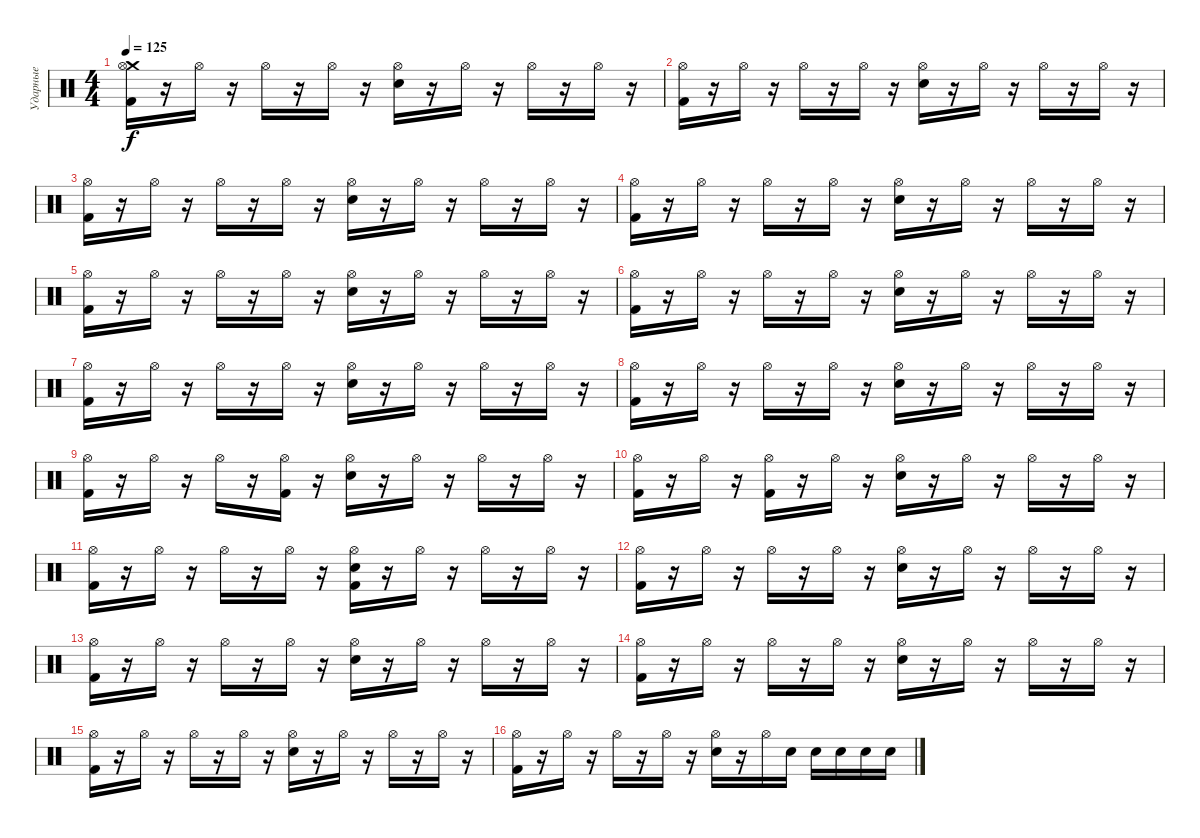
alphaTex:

\track ("Ударные" "Ударные") {instrument percussion}
\staff {score}
\articulation defaults
\ts (4 4)
\tempo 125
\clef neutral
\ks c
("Crash medium (hit)" "Hi-Hat (open)" "Kick (hit) 2").16{dy f} r.16 "Hi-Hat (open)".16 r.16 "Hi-Hat (open)".16 r.16 "Hi-Hat (open)".16 r.16 ("Hi-Hat (open)" "Snare (hit) 2").16 r.16 "Hi-Hat (open)".16 r.16 "Hi-Hat (open)".16 r.16 "Hi-Hat (open)".16 r.16 |
("Hi-Hat (open)" "Kick (hit) 2").16 r.16 "Hi-Hat (open)".16 r.16 "Hi-Hat (open)".16 r.16 "Hi-Hat (open)".16 r.16 ("Hi-Hat (open)" "Snare (hit) 2").16 r.16 "Hi-Hat (open)".16 r.16 "Hi-Hat (open)".16 r.16 "Hi-Hat (open)".16 r.16 |
("Hi-Hat (open)" "Kick (hit) 2").16 r.16 "Hi-Hat (open)".16 r.16 "Hi-Hat (open)".16 r.16 "Hi-Hat (open)".16 r.16 ("Hi-Hat (open)" "Snare (hit) 2").16 r.16 "Hi-Hat (open)".16 r.16 "Hi-Hat (open)".16 r.16 "Hi-Hat (open)".16 r.16 |
("Hi-Hat (open)" "Kick (hit) 2").16 r.16 "Hi-Hat (open)".16 r.16 "Hi-Hat (open)".16 r.16 "Hi-Hat (open)".16 r.16 ("Hi-Hat (open)" "Snare (hit) 2").16 r.16 "Hi-Hat (open)".16 r.16 "Hi-Hat (open)".16 r.16 "Hi-Hat (open)".16 r.16 |
("Hi-Hat (open)" "Kick (hit) 2").16 r.16 "Hi-Hat (open)".16 r.16 "Hi-Hat (open)".16 r.16 "Hi-Hat (open)".16 r.16 ("Hi-Hat (open)" "Snare (hit) 2").16 r.16 "Hi-Hat (open)".16 r.16 "Hi-Hat (open)".16 r.16 "Hi-Hat (open)".16 r.16 |
("Hi-Hat (open)" "Kick (hit) 2").16 r.16 "Hi-Hat (open)".16 r.16 "Hi-Hat (open)".16 r.16 "Hi-Hat (open)".16 r.16 ("Hi-Hat (open)" "Snare (hit) 2").16 r.16 "Hi-Hat (open)".16 r.16 "Hi-Hat (open)".16 r.16 "Hi-Hat (open)".16 r.16 |
("Hi-Hat (open)" "Kick (hit) 2").16 r.16 "Hi-Hat (open)".16 r.16 "Hi-Hat (open)".16 r.16 "Hi-Hat (open)".16 r.16 ("Hi-Hat (open)" "Snare (hit) 2").16 r.16 "Hi-Hat (open)".16 r.16 "Hi-Hat (open)".16 r.16 "Hi-Hat (open)".16 r.16 |
("Hi-Hat (open)" "Kick (hit) 2").16 r.16 "Hi-Hat (open)".16 r.16 "Hi-Hat (open)".16 r.16 "Hi-Hat (open)".16 r.16 ("Hi-Hat (open)" "Snare (hit) 2").16 r.16 "Hi-Hat (open)".16 r.16 "Hi-Hat (open)".16 r.16 "Hi-Hat (open)".16 r.16 |
("Hi-Hat (open)" "Kick (hit) 2").16 r.16 "Hi-Hat (open)".16 r.16 "Hi-Hat (open)".16 r.16 ("Hi-Hat (open)" "Kick (hit) 2").16 r.16 ("Hi-Hat (open)" "Snare (hit) 2").16 r.16 "Hi-Hat (open)".16 r.16 "Hi-Hat (open)".16 r.16 "Hi-Hat (open)".16 r.16 |
("Hi-Hat (open)" "Kick (hit) 2").16 r.16 "Hi-Hat (open)".16 r.16 ("Hi-Hat (open)" "Kick (hit) 2").16 r.16 "Hi-Hat (open)".16 r.16 ("Hi-Hat (open)" "Snare (hit) 2").16 r.16 "Hi-Hat (open)".16 r.16 "Hi-Hat (open)".16 r.16 "Hi-Hat (open)".16 r.16 |
("Hi-Hat (open)" "Kick (hit) 2").16 r.16 "Hi-Hat (open)".16 r.16 "Hi-Hat (open)".16 r.16 "Hi-Hat (open)".16 r.16 ("Hi-Hat (open)" "Snare (hit) 2" "Kick (hit) 2").16 r.16 "Hi-Hat (open)".16 r.16 "Hi-Hat (open)".16 r.16 "Hi-Hat (open)".16 r.16 |
("Hi-Hat (open)" "Kick (hit) 2").16 r.16 "Hi-Hat (open)".16 r.16 "Hi-Hat (open)".16 r.16 "Hi-Hat (open)".16 r.16 ("Hi-Hat (open)" "Snare (hit) 2").16 r.16 "Hi-Hat (open)".16 r.16 "Hi-Hat (open)".16 r.16 "Hi-Hat (open)".16 r.16 |
("Hi-Hat (open)" "Kick (hit) 2").16 r.16 "Hi-Hat (open)".16 r.16 "Hi-Hat (open)".16 r.16 "Hi-Hat (open)".16 r.16 ("Hi-Hat (open)" "Snare (hit) 2").16 r.16 "Hi-Hat (open)".16 r.16 "Hi-Hat (open)".16 r.16 "Hi-Hat (open)".16 r.16 |
("Hi-Hat (open)" "Kick (hit) 2").16 r.16 "Hi-Hat (open)".16 r.16 "Hi-Hat (open)".16 r.16 "Hi-Hat (open)".16 r.16 ("Hi-Hat (open)" "Snare (hit) 2").16 r.16 "Hi-Hat (open)".16 r.16 "Hi-Hat (open)".16 r.16 "Hi-Hat (open)".16 r.16 |
("Hi-Hat (open)" "Kick (hit) 2").16 r.16 "Hi-Hat (open)".16 r.16 "Hi-Hat (open)".16 r.16 "Hi-Hat (open)".16 r.16 ("Hi-Hat (open)" "Snare (hit) 2").16 r.16 "Hi-Hat (open)".16 r.16 "Hi-Hat (open)".16 r.16 "Hi-Hat (open)".16 r.16 |
("Hi-Hat (open)" "Kick (hit) 2").16 r.16 "Hi-Hat (open)".16 r.16 "Hi-Hat (open)".16 r.16 "Hi-Hat (open)".16 r.16 ("Hi-Hat (open)" "Snare (hit) 2").16 r.16 "Hi-Hat (open)".16 "Snare (hit) 2".16 "Snare (hit) 2".16 "Snare (hit) 2".16 "Snare (hit) 2".16 "Snare (hit) 2".16
